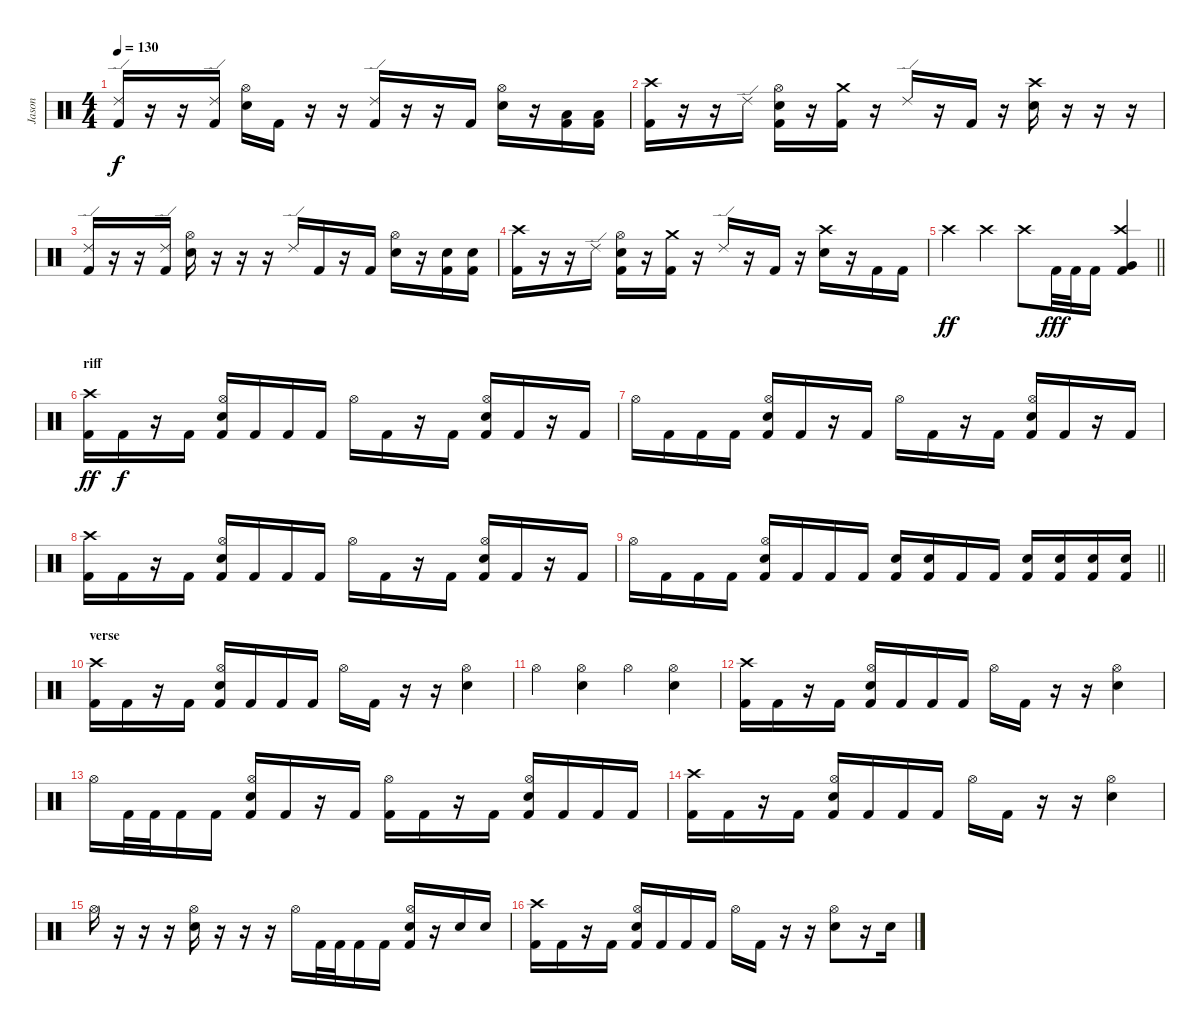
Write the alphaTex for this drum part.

\track ("Jason" "Jason") {instrument percussion}
\staff {score}
\articulation defaults
\ts (4 4)
\tempo 130
\clef neutral
\ks c
("Ride (edge) 2" "Kick (hit) 2").16{dy f} r.16 r.16 ("Ride (edge) 2" "Kick (hit) 2").16 ("Hi-Hat (open)" "Electric Snare (hit)").16 "Kick (hit) 2".16 r.16 r.16 ("Ride (edge) 2" "Kick (hit) 2").16 r.16 r.16 "Kick (hit) 2".16 ("Hi-Hat (open)" "Electric Snare (hit)").16 r.16 ("Low Tom (hit)" "Kick (hit) 2").16 ("Low Tom (hit)" "Kick (hit) 2").16 |
("Crash high (hit)" "Kick (hit) 2").16 r.16 r.16 "Ride (edge) 2".16 ("Hi-Hat (open)" "Electric Snare (hit)" "Kick (hit) 2").16 r.16 ("Crash medium (hit)" "Kick (hit) 2").16 r.16 "Ride (edge) 2".16 r.16 "Kick (hit) 2".16 r.16 ("Crash high (hit)" "Electric Snare (hit)").16 r.16 r.16 r.16 |
("Ride (edge) 2" "Kick (hit) 2").16 r.16 r.16 ("Ride (edge) 2" "Kick (hit) 2").16 ("Hi-Hat (open)" "Electric Snare (hit)").16 r.16 r.16 r.16 "Ride (edge) 2".16 "Kick (hit) 2".16 r.16 "Kick (hit) 2".16 ("Hi-Hat (open)" "Electric Snare (hit)").16 r.16 ("Electric Snare (hit)" "Kick (hit) 2").16 ("Electric Snare (hit)" "Kick (hit) 2").16 |
("Crash high (hit)" "Kick (hit) 2").16 r.16 r.16 "Ride (edge) 2".16 ("Hi-Hat (open)" "Electric Snare (hit)" "Kick (hit) 2").16 r.16 ("Crash medium (hit)" "Kick (hit) 2").16 r.16 "Ride (edge) 2".16 r.16 "Kick (hit) 2".16 r.16 ("Crash high (hit)" "Electric Snare (hit)").16 r.16 "Kick (hit) 2".16 "Kick (hit) 2".16 |
\barLineRight lightlight "Crash high (hit)".4{dy ff} "Crash high (hit)".4 "Crash high (hit)".8 "Kick (hit) 2".32{dy fff} "Kick (hit) 2".32 "Kick (hit) 2".16
("Crash high (hit)" "Very Low Tom (hit)" "Kick (hit) 2").4 |
\section ("" "riff")
("Crash high (hit)" "Kick (hit) 2").16{dy ff} "Kick (hit) 2".16{dy f} r.16 "Kick (hit) 2".16 ("Hi-Hat (open)" "Electric Snare (hit)" "Kick (hit) 2").16 "Kick (hit) 2".16 "Kick (hit) 2".16 "Kick (hit) 2".16 "Hi-Hat (open)".16 "Kick (hit) 2".16 r.16 "Kick (hit) 2".16 ("Hi-Hat (open)" "Electric Snare (hit)" "Kick (hit) 2").16 "Kick (hit) 2".16 r.16 "Kick (hit) 2".16 |
"Hi-Hat (open)".16 "Kick (hit) 2".16 "Kick (hit) 2".16 "Kick (hit) 2".16 ("Hi-Hat (open)" "Electric Snare (hit)" "Kick (hit) 2").16 "Kick (hit) 2".16 r.16 "Kick (hit) 2".16 "Hi-Hat (open)".16 "Kick (hit) 2".16 r.16 "Kick (hit) 2".16 ("Hi-Hat (open)" "Electric Snare (hit)" "Kick (hit) 2").16 "Kick (hit) 2".16 r.16 "Kick (hit) 2".16 |
("Crash high (hit)" "Kick (hit) 2").16 "Kick (hit) 2".16 r.16 "Kick (hit) 2".16 ("Hi-Hat (open)" "Electric Snare (hit)" "Kick (hit) 2").16 "Kick (hit) 2".16 "Kick (hit) 2".16 "Kick (hit) 2".16 "Hi-Hat (open)".16 "Kick (hit) 2".16 r.16 "Kick (hit) 2".16 ("Hi-Hat (open)" "Electric Snare (hit)" "Kick (hit) 2").16 "Kick (hit) 2".16 r.16 "Kick (hit) 2".16 |
\barLineRight lightlight "Hi-Hat (open)".16 "Kick (hit) 2".16 "Kick (hit) 2".16 "Kick (hit) 2".16
("Hi-Hat (open)" "Electric Snare (hit)" "Kick (hit) 2").16 "Kick (hit) 2".16 "Kick (hit) 2".16 "Kick (hit) 2".16 ("Electric Snare (hit)" "Kick (hit) 2").16 ("Electric Snare (hit)" "Kick (hit) 2").16 "Kick (hit) 2".16 "Kick (hit) 2".16 ("Electric Snare (hit)" "Kick (hit) 2").16 ("Electric Snare (hit)" "Kick (hit) 2").16 ("Electric Snare (hit)" "Kick (hit) 2").16 ("Electric Snare (hit)" "Kick (hit) 2").16 |
\section ("" "verse")
("Crash high (hit)" "Kick (hit) 2").16 "Kick (hit) 2".16 r.16 "Kick (hit) 2".16 ("Hi-Hat (open)" "Electric Snare (hit)" "Kick (hit) 2").16 "Kick (hit) 2".16 "Kick (hit) 2".16 "Kick (hit) 2".16 "Hi-Hat (open)".16 "Kick (hit) 2".16 r.16 r.16 ("Hi-Hat (open)" "Electric Snare (hit)").4 |
"Hi-Hat (open)".4 ("Hi-Hat (open)" "Electric Snare (hit)").4 "Hi-Hat (open)".4 ("Hi-Hat (open)" "Electric Snare (hit)").4 |
("Crash high (hit)" "Kick (hit) 2").16 "Kick (hit) 2".16 r.16 "Kick (hit) 2".16 ("Hi-Hat (open)" "Electric Snare (hit)" "Kick (hit) 2").16 "Kick (hit) 2".16 "Kick (hit) 2".16 "Kick (hit) 2".16 "Hi-Hat (open)".16 "Kick (hit) 2".16 r.16 r.16 ("Hi-Hat (open)" "Electric Snare (hit)").4 |
"Hi-Hat (open)".16 "Kick (hit) 2".32 "Kick (hit) 2".32 "Kick (hit) 2".16 "Kick (hit) 2".16 ("Hi-Hat (open)" "Electric Snare (hit)" "Kick (hit) 2").16 "Kick (hit) 2".16 r.16 "Kick (hit) 2".16 ("Hi-Hat (open)" "Kick (hit) 2").16 "Kick (hit) 2".16 r.16 "Kick (hit) 2".16 ("Hi-Hat (open)" "Electric Snare (hit)" "Kick (hit) 2").16 "Kick (hit) 2".16 "Kick (hit) 2".16 "Kick (hit) 2".16 |
("Crash high (hit)" "Kick (hit) 2").16 "Kick (hit) 2".16 r.16 "Kick (hit) 2".16 ("Hi-Hat (open)" "Electric Snare (hit)" "Kick (hit) 2").16 "Kick (hit) 2".16 "Kick (hit) 2".16 "Kick (hit) 2".16 "Hi-Hat (open)".16 "Kick (hit) 2".16 r.16 r.16 ("Hi-Hat (open)" "Electric Snare (hit)").4 |
"Hi-Hat (open)".16 r.16 r.16 r.16 ("Hi-Hat (open)" "Electric Snare (hit)").16 r.16 r.16 r.16 "Hi-Hat (open)".16 "Kick (hit) 2".32 "Kick (hit) 2".32 "Kick (hit) 2".16 "Kick (hit) 2".16 ("Hi-Hat (open)" "Electric Snare (hit)" "Kick (hit) 2").16 r.16 "Electric Snare (hit)".16 "Electric Snare (hit)".16 |
("Crash high (hit)" "Kick (hit) 2").16 "Kick (hit) 2".16 r.16 "Kick (hit) 2".16 ("Hi-Hat (open)" "Electric Snare (hit)" "Kick (hit) 2").16 "Kick (hit) 2".16 "Kick (hit) 2".16 "Kick (hit) 2".16 "Hi-Hat (open)".16 "Kick (hit) 2".16 r.16 r.16 ("Hi-Hat (open)" "Electric Snare (hit)").8 r.16 "Electric Snare (hit)".16
